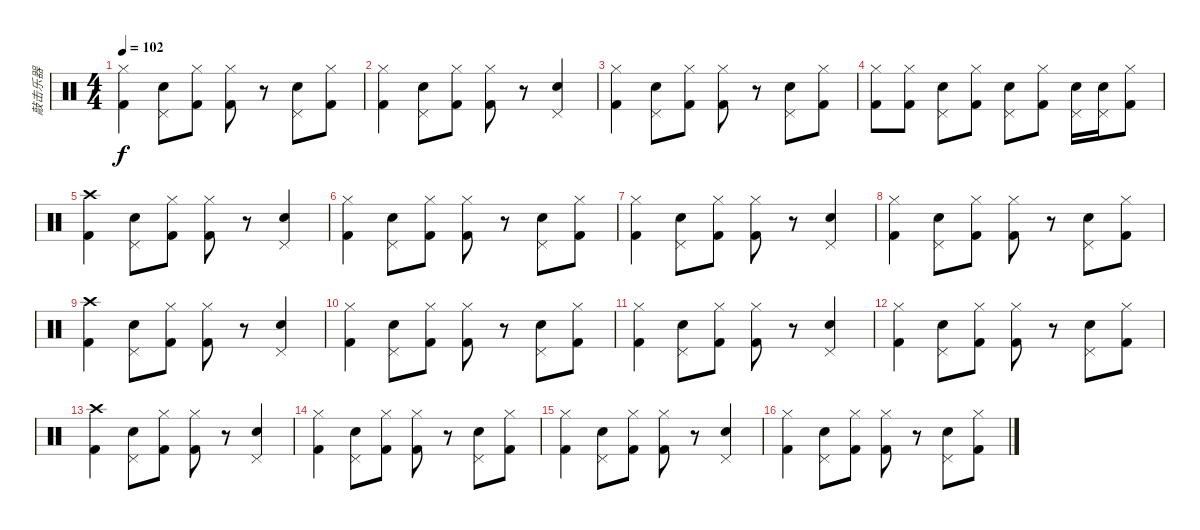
\track ("敲击乐器" "敲击乐器") {instrument percussion}
\staff {score}
\articulation defaults
\ts (4 4)
\tempo 102
\clef neutral
\ks c
("Hi-Hat (closed)" "Kick (hit) 2").4{dy f} ("Pedal Hi-Hat (hit)" "Snare (hit) 2").8 ("Hi-Hat (closed)" "Kick (hit) 2").8 ("Hi-Hat (closed)" "Kick (hit) 2").8 r.8 ("Pedal Hi-Hat (hit)" "Snare (hit) 2").8 ("Hi-Hat (closed)" "Kick (hit) 2").8 |
("Hi-Hat (closed)" "Kick (hit) 2").4 ("Pedal Hi-Hat (hit)" "Snare (hit) 2").8 ("Hi-Hat (closed)" "Kick (hit) 2").8 ("Hi-Hat (closed)" "Kick (hit) 2").8 r.8 ("Pedal Hi-Hat (hit)" "Snare (hit) 2").4 |
("Hi-Hat (closed)" "Kick (hit) 2").4 ("Pedal Hi-Hat (hit)" "Snare (hit) 2").8 ("Hi-Hat (closed)" "Kick (hit) 2").8 ("Hi-Hat (closed)" "Kick (hit) 2").8 r.8 ("Pedal Hi-Hat (hit)" "Snare (hit) 2").8 ("Hi-Hat (closed)" "Kick (hit) 2").8 |
("Hi-Hat (closed)" "Kick (hit) 2").8 ("Hi-Hat (closed)" "Kick (hit) 2").8 ("Pedal Hi-Hat (hit)" "Snare (hit) 2").8 ("Hi-Hat (closed)" "Kick (hit) 2").8 ("Pedal Hi-Hat (hit)" "Snare (hit) 2").8 ("Hi-Hat (closed)" "Kick (hit) 2").8 ("Pedal Hi-Hat (hit)" "Snare (hit) 2").16 ("Pedal Hi-Hat (hit)" "Snare (hit) 2").16 ("Hi-Hat (closed)" "Kick (hit) 2").8 |
("Crash high (hit)" "Kick (hit) 2").4 ("Pedal Hi-Hat (hit)" "Snare (hit) 2").8 ("Hi-Hat (closed)" "Kick (hit) 2").8 ("Hi-Hat (closed)" "Kick (hit) 2").8 r.8 ("Pedal Hi-Hat (hit)" "Snare (hit) 2").4 |
("Hi-Hat (closed)" "Kick (hit) 2").4 ("Pedal Hi-Hat (hit)" "Snare (hit) 2").8 ("Hi-Hat (closed)" "Kick (hit) 2").8 ("Hi-Hat (closed)" "Kick (hit) 2").8 r.8 ("Pedal Hi-Hat (hit)" "Snare (hit) 2").8 ("Hi-Hat (closed)" "Kick (hit) 2").8 |
("Hi-Hat (closed)" "Kick (hit) 2").4 ("Pedal Hi-Hat (hit)" "Snare (hit) 2").8 ("Hi-Hat (closed)" "Kick (hit) 2").8 ("Hi-Hat (closed)" "Kick (hit) 2").8 r.8 ("Pedal Hi-Hat (hit)" "Snare (hit) 2").4 |
("Hi-Hat (closed)" "Kick (hit) 2").4 ("Pedal Hi-Hat (hit)" "Snare (hit) 2").8 ("Hi-Hat (closed)" "Kick (hit) 2").8 ("Hi-Hat (closed)" "Kick (hit) 2").8 r.8 ("Pedal Hi-Hat (hit)" "Snare (hit) 2").8 ("Hi-Hat (closed)" "Kick (hit) 2").8 |
("Crash high (hit)" "Kick (hit) 2").4 ("Pedal Hi-Hat (hit)" "Snare (hit) 2").8 ("Hi-Hat (closed)" "Kick (hit) 2").8 ("Hi-Hat (closed)" "Kick (hit) 2").8 r.8 ("Pedal Hi-Hat (hit)" "Snare (hit) 2").4 |
("Hi-Hat (closed)" "Kick (hit) 2").4 ("Pedal Hi-Hat (hit)" "Snare (hit) 2").8 ("Hi-Hat (closed)" "Kick (hit) 2").8 ("Hi-Hat (closed)" "Kick (hit) 2").8 r.8 ("Pedal Hi-Hat (hit)" "Snare (hit) 2").8 ("Hi-Hat (closed)" "Kick (hit) 2").8 |
("Hi-Hat (closed)" "Kick (hit) 2").4 ("Pedal Hi-Hat (hit)" "Snare (hit) 2").8 ("Hi-Hat (closed)" "Kick (hit) 2").8 ("Hi-Hat (closed)" "Kick (hit) 2").8 r.8 ("Pedal Hi-Hat (hit)" "Snare (hit) 2").4 |
("Hi-Hat (closed)" "Kick (hit) 2").4 ("Pedal Hi-Hat (hit)" "Snare (hit) 2").8 ("Hi-Hat (closed)" "Kick (hit) 2").8 ("Hi-Hat (closed)" "Kick (hit) 2").8 r.8 ("Pedal Hi-Hat (hit)" "Snare (hit) 2").8 ("Hi-Hat (closed)" "Kick (hit) 2").8 |
("Crash high (hit)" "Kick (hit) 2").4 ("Pedal Hi-Hat (hit)" "Snare (hit) 2").8 ("Hi-Hat (closed)" "Kick (hit) 2").8 ("Hi-Hat (closed)" "Kick (hit) 2").8 r.8 ("Pedal Hi-Hat (hit)" "Snare (hit) 2").4 |
("Hi-Hat (closed)" "Kick (hit) 2").4 ("Pedal Hi-Hat (hit)" "Snare (hit) 2").8 ("Hi-Hat (closed)" "Kick (hit) 2").8 ("Hi-Hat (closed)" "Kick (hit) 2").8 r.8 ("Pedal Hi-Hat (hit)" "Snare (hit) 2").8 ("Hi-Hat (closed)" "Kick (hit) 2").8 |
("Hi-Hat (closed)" "Kick (hit) 2").4 ("Pedal Hi-Hat (hit)" "Snare (hit) 2").8 ("Hi-Hat (closed)" "Kick (hit) 2").8 ("Hi-Hat (closed)" "Kick (hit) 2").8 r.8 ("Pedal Hi-Hat (hit)" "Snare (hit) 2").4 |
("Hi-Hat (closed)" "Kick (hit) 2").4 ("Pedal Hi-Hat (hit)" "Snare (hit) 2").8 ("Hi-Hat (closed)" "Kick (hit) 2").8 ("Hi-Hat (closed)" "Kick (hit) 2").8 r.8 ("Pedal Hi-Hat (hit)" "Snare (hit) 2").8 ("Hi-Hat (closed)" "Kick (hit) 2").8
